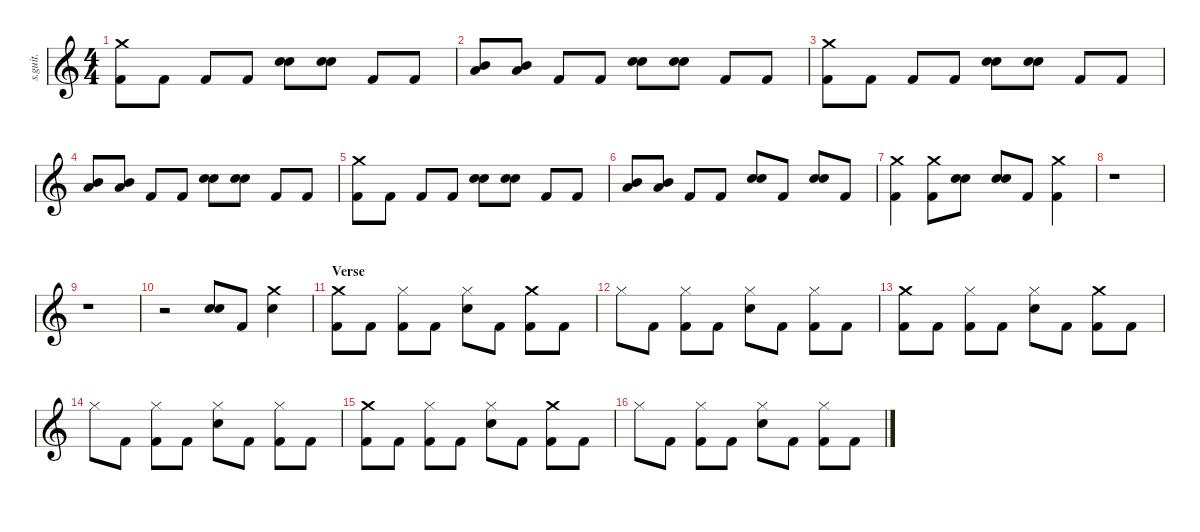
\defaultSystemsLayout 4
\hideDynamics
\bracketExtendMode nobrackets
\track ("Taylor Hawkins" "s.guit.") {instrument percussion}
\staff {score}
\articulation defaults
\ts (4 4)
\tempo (154 hide)
\clef g2
\ks c
("Crash medium (hit)" "Kick (hit) 2").8{lyrics (0 "") lyrics (1 "") lyrics (2 "") lyrics (3 "") lyrics (4 "") dy f} "Kick (hit) 2".8{lyrics (0 "") lyrics (1 "") lyrics (2 "") lyrics (3 "") lyrics (4 "")} "Kick (hit) 2".8{lyrics (0 "") lyrics (1 "") lyrics (2 "") lyrics (3 "") lyrics (4 "")} "Kick (hit) 2".8{lyrics (0 "") lyrics (1 "") lyrics (2 "") lyrics (3 "") lyrics (4 "")} ("Snare (hit) 2" "Electric Snare (hit)").8{lyrics (0 "") lyrics (1 "") lyrics (2 "") lyrics (3 "") lyrics (4 "")} ("Snare (hit) 2" "Electric Snare (hit)").8{lyrics (0 "") lyrics (1 "") lyrics (2 "") lyrics (3 "") lyrics (4 "")} "Kick (hit) 2".8{lyrics (0 "") lyrics (1 "") lyrics (2 "") lyrics (3 "") lyrics (4 "")} "Kick (hit) 2".8{lyrics (0 "") lyrics (1 "") lyrics (2 "") lyrics (3 "") lyrics (4 "")} |
("Low Floor Tom (hit)" "Mid Tom (hit)").8{lyrics (0 "") lyrics (1 "") lyrics (2 "") lyrics (3 "") lyrics (4 "")} ("Low Floor Tom (hit)" "Mid Tom (hit)").8{lyrics (0 "") lyrics (1 "") lyrics (2 "") lyrics (3 "") lyrics (4 "")} "Kick (hit) 2".8{lyrics (0 "") lyrics (1 "") lyrics (2 "") lyrics (3 "") lyrics (4 "")} "Kick (hit) 2".8{lyrics (0 "") lyrics (1 "") lyrics (2 "") lyrics (3 "") lyrics (4 "")} ("Snare (hit) 2" "Electric Snare (hit)").8{lyrics (0 "") lyrics (1 "") lyrics (2 "") lyrics (3 "") lyrics (4 "")} ("Snare (hit) 2" "Electric Snare (hit)").8{lyrics (0 "") lyrics (1 "") lyrics (2 "") lyrics (3 "") lyrics (4 "")} "Kick (hit) 2".8{lyrics (0 "") lyrics (1 "") lyrics (2 "") lyrics (3 "") lyrics (4 "")} "Kick (hit) 2".8{lyrics (0 "") lyrics (1 "") lyrics (2 "") lyrics (3 "") lyrics (4 "")} |
("Crash medium (hit)" "Kick (hit) 2").8{lyrics (0 "") lyrics (1 "") lyrics (2 "") lyrics (3 "") lyrics (4 "")} "Kick (hit) 2".8{lyrics (0 "") lyrics (1 "") lyrics (2 "") lyrics (3 "") lyrics (4 "")} "Kick (hit) 2".8{lyrics (0 "") lyrics (1 "") lyrics (2 "") lyrics (3 "") lyrics (4 "")} "Kick (hit) 2".8{lyrics (0 "") lyrics (1 "") lyrics (2 "") lyrics (3 "") lyrics (4 "")} ("Snare (hit) 2" "Electric Snare (hit)").8{lyrics (0 "") lyrics (1 "") lyrics (2 "") lyrics (3 "") lyrics (4 "")} ("Snare (hit) 2" "Electric Snare (hit)").8{lyrics (0 "") lyrics (1 "") lyrics (2 "") lyrics (3 "") lyrics (4 "")} "Kick (hit) 2".8{lyrics (0 "") lyrics (1 "") lyrics (2 "") lyrics (3 "") lyrics (4 "")} "Kick (hit) 2".8{lyrics (0 "") lyrics (1 "") lyrics (2 "") lyrics (3 "") lyrics (4 "")} |
("Low Floor Tom (hit)" "Mid Tom (hit)").8{lyrics (0 "") lyrics (1 "") lyrics (2 "") lyrics (3 "") lyrics (4 "")} ("Low Floor Tom (hit)" "Mid Tom (hit)").8{lyrics (0 "") lyrics (1 "") lyrics (2 "") lyrics (3 "") lyrics (4 "")} "Kick (hit) 2".8{lyrics (0 "") lyrics (1 "") lyrics (2 "") lyrics (3 "") lyrics (4 "")} "Kick (hit) 2".8{lyrics (0 "") lyrics (1 "") lyrics (2 "") lyrics (3 "") lyrics (4 "")} ("Snare (hit) 2" "Electric Snare (hit)").8{lyrics (0 "") lyrics (1 "") lyrics (2 "") lyrics (3 "") lyrics (4 "")} ("Snare (hit) 2" "Electric Snare (hit)").8{lyrics (0 "") lyrics (1 "") lyrics (2 "") lyrics (3 "") lyrics (4 "")} "Kick (hit) 2".8{lyrics (0 "") lyrics (1 "") lyrics (2 "") lyrics (3 "") lyrics (4 "")} "Kick (hit) 2".8{lyrics (0 "") lyrics (1 "") lyrics (2 "") lyrics (3 "") lyrics (4 "")} |
("Crash medium (hit)" "Kick (hit) 2").8{lyrics (0 "") lyrics (1 "") lyrics (2 "") lyrics (3 "") lyrics (4 "")} "Kick (hit) 2".8{lyrics (0 "") lyrics (1 "") lyrics (2 "") lyrics (3 "") lyrics (4 "")} "Kick (hit) 2".8{lyrics (0 "") lyrics (1 "") lyrics (2 "") lyrics (3 "") lyrics (4 "")} "Kick (hit) 2".8{lyrics (0 "") lyrics (1 "") lyrics (2 "") lyrics (3 "") lyrics (4 "")} ("Snare (hit) 2" "Electric Snare (hit)").8{lyrics (0 "") lyrics (1 "") lyrics (2 "") lyrics (3 "") lyrics (4 "")} ("Snare (hit) 2" "Electric Snare (hit)").8{lyrics (0 "") lyrics (1 "") lyrics (2 "") lyrics (3 "") lyrics (4 "")} "Kick (hit) 2".8{lyrics (0 "") lyrics (1 "") lyrics (2 "") lyrics (3 "") lyrics (4 "")} "Kick (hit) 2".8{lyrics (0 "") lyrics (1 "") lyrics (2 "") lyrics (3 "") lyrics (4 "")} |
("Mid Tom (hit)" "Low Tom (hit)").8{lyrics (0 "") lyrics (1 "") lyrics (2 "") lyrics (3 "") lyrics (4 "")} ("Mid Tom (hit)" "Low Tom (hit)").8{lyrics (0 "") lyrics (1 "") lyrics (2 "") lyrics (3 "") lyrics (4 "")} "Kick (hit) 2".8{lyrics (0 "") lyrics (1 "") lyrics (2 "") lyrics (3 "") lyrics (4 "")} "Kick (hit) 2".8{lyrics (0 "") lyrics (1 "") lyrics (2 "") lyrics (3 "") lyrics (4 "")} ("Snare (hit) 2" "Electric Snare (hit)").8{lyrics (0 "") lyrics (1 "") lyrics (2 "") lyrics (3 "") lyrics (4 "")} "Kick (hit) 2".8{lyrics (0 "") lyrics (1 "") lyrics (2 "") lyrics (3 "") lyrics (4 "")} ("Snare (hit) 2" "Electric Snare (hit)").8{lyrics (0 "") lyrics (1 "") lyrics (2 "") lyrics (3 "") lyrics (4 "")} "Kick (hit) 2".8{lyrics (0 "") lyrics (1 "") lyrics (2 "") lyrics (3 "") lyrics (4 "")} |
("Crash medium (hit)" "Kick (hit) 2").4{lyrics (0 "") lyrics (1 "") lyrics (2 "") lyrics (3 "") lyrics (4 "")} ("Crash medium (hit)" "Kick (hit) 2").8{lyrics (0 "") lyrics (1 "") lyrics (2 "") lyrics (3 "") lyrics (4 "")} ("Snare (hit) 2" "Electric Snare (hit)").8{lyrics (0 "") lyrics (1 "") lyrics (2 "") lyrics (3 "") lyrics (4 "")} ("Snare (hit) 2" "Electric Snare (hit)").8{lyrics (0 "") lyrics (1 "") lyrics (2 "") lyrics (3 "") lyrics (4 "")} "Kick (hit) 2".8{lyrics (0 "") lyrics (1 "") lyrics (2 "") lyrics (3 "") lyrics (4 "")} ("Crash medium (hit)" "Kick (hit) 2").4{lyrics (0 "") lyrics (1 "") lyrics (2 "") lyrics (3 "") lyrics (4 "")} |
r.1 |
r.1 |
r.2 ("Snare (hit) 2" "Electric Snare (hit)").8{lyrics (0 "") lyrics (1 "") lyrics (2 "") lyrics (3 "") lyrics (4 "")} "Kick (hit) 2".8{lyrics (0 "") lyrics (1 "") lyrics (2 "") lyrics (3 "") lyrics (4 "")} ("Crash medium (hit)" "Electric Snare (hit)").4{lyrics (0 "") lyrics (1 "") lyrics (2 "") lyrics (3 "") lyrics (4 "")} |
\section ("" "Verse")
("Crash medium (hit)" "Kick (hit) 2").8{lyrics (0 "") lyrics (1 "") lyrics (2 "") lyrics (3 "") lyrics (4 "")} "Kick (hit) 2".8{lyrics (0 "") lyrics (1 "") lyrics (2 "") lyrics (3 "") lyrics (4 "")} ("Hi-Hat (closed)" "Kick (hit) 2").8{lyrics (0 "") lyrics (1 "") lyrics (2 "") lyrics (3 "") lyrics (4 "")} "Kick (hit) 2".8{lyrics (0 "") lyrics (1 "") lyrics (2 "") lyrics (3 "") lyrics (4 "")} ("Hi-Hat (closed)" "Electric Snare (hit)").8{lyrics (0 "") lyrics (1 "") lyrics (2 "") lyrics (3 "") lyrics (4 "")} "Kick (hit) 2".8{lyrics (0 "") lyrics (1 "") lyrics (2 "") lyrics (3 "") lyrics (4 "")} ("Crash medium (hit)" "Kick (hit) 2").8{lyrics (0 "") lyrics (1 "") lyrics (2 "") lyrics (3 "") lyrics (4 "")} "Kick (hit) 2".8{lyrics (0 "") lyrics (1 "") lyrics (2 "") lyrics (3 "") lyrics (4 "")} |
"Hi-Hat (closed)".8{lyrics (0 "") lyrics (1 "") lyrics (2 "") lyrics (3 "") lyrics (4 "")} "Kick (hit) 2".8{lyrics (0 "") lyrics (1 "") lyrics (2 "") lyrics (3 "") lyrics (4 "")} ("Hi-Hat (closed)" "Kick (hit) 2").8{lyrics (0 "") lyrics (1 "") lyrics (2 "") lyrics (3 "") lyrics (4 "")} "Kick (hit) 2".8{lyrics (0 "") lyrics (1 "") lyrics (2 "") lyrics (3 "") lyrics (4 "")} ("Hi-Hat (closed)" "Electric Snare (hit)").8{lyrics (0 "") lyrics (1 "") lyrics (2 "") lyrics (3 "") lyrics (4 "")} "Kick (hit) 2".8{lyrics (0 "") lyrics (1 "") lyrics (2 "") lyrics (3 "") lyrics (4 "")} ("Hi-Hat (closed)" "Kick (hit) 2").8{lyrics (0 "") lyrics (1 "") lyrics (2 "") lyrics (3 "") lyrics (4 "")} "Kick (hit) 2".8{lyrics (0 "") lyrics (1 "") lyrics (2 "") lyrics (3 "") lyrics (4 "")} |
("Crash medium (hit)" "Kick (hit) 2").8{lyrics (0 "") lyrics (1 "") lyrics (2 "") lyrics (3 "") lyrics (4 "")} "Kick (hit) 2".8{lyrics (0 "") lyrics (1 "") lyrics (2 "") lyrics (3 "") lyrics (4 "")} ("Hi-Hat (closed)" "Kick (hit) 2").8{lyrics (0 "") lyrics (1 "") lyrics (2 "") lyrics (3 "") lyrics (4 "")} "Kick (hit) 2".8{lyrics (0 "") lyrics (1 "") lyrics (2 "") lyrics (3 "") lyrics (4 "")} ("Hi-Hat (closed)" "Electric Snare (hit)").8{lyrics (0 "") lyrics (1 "") lyrics (2 "") lyrics (3 "") lyrics (4 "")} "Kick (hit) 2".8{lyrics (0 "") lyrics (1 "") lyrics (2 "") lyrics (3 "") lyrics (4 "")} ("Crash medium (hit)" "Kick (hit) 2").8{lyrics (0 "") lyrics (1 "") lyrics (2 "") lyrics (3 "") lyrics (4 "")} "Kick (hit) 2".8{lyrics (0 "") lyrics (1 "") lyrics (2 "") lyrics (3 "") lyrics (4 "")} |
"Hi-Hat (closed)".8{lyrics (0 "") lyrics (1 "") lyrics (2 "") lyrics (3 "") lyrics (4 "")} "Kick (hit) 2".8{lyrics (0 "") lyrics (1 "") lyrics (2 "") lyrics (3 "") lyrics (4 "")} ("Hi-Hat (closed)" "Kick (hit) 2").8{lyrics (0 "") lyrics (1 "") lyrics (2 "") lyrics (3 "") lyrics (4 "")} "Kick (hit) 2".8{lyrics (0 "") lyrics (1 "") lyrics (2 "") lyrics (3 "") lyrics (4 "")} ("Hi-Hat (closed)" "Electric Snare (hit)").8{lyrics (0 "") lyrics (1 "") lyrics (2 "") lyrics (3 "") lyrics (4 "")} "Kick (hit) 2".8{lyrics (0 "") lyrics (1 "") lyrics (2 "") lyrics (3 "") lyrics (4 "")} ("Hi-Hat (closed)" "Kick (hit) 2").8{lyrics (0 "") lyrics (1 "") lyrics (2 "") lyrics (3 "") lyrics (4 "")} "Kick (hit) 2".8{lyrics (0 "") lyrics (1 "") lyrics (2 "") lyrics (3 "") lyrics (4 "")} |
("Crash medium (hit)" "Kick (hit) 2").8{lyrics (0 "") lyrics (1 "") lyrics (2 "") lyrics (3 "") lyrics (4 "")} "Kick (hit) 2".8{lyrics (0 "") lyrics (1 "") lyrics (2 "") lyrics (3 "") lyrics (4 "")} ("Hi-Hat (closed)" "Kick (hit) 2").8{lyrics (0 "") lyrics (1 "") lyrics (2 "") lyrics (3 "") lyrics (4 "")} "Kick (hit) 2".8{lyrics (0 "") lyrics (1 "") lyrics (2 "") lyrics (3 "") lyrics (4 "")} ("Hi-Hat (closed)" "Electric Snare (hit)").8{lyrics (0 "") lyrics (1 "") lyrics (2 "") lyrics (3 "") lyrics (4 "")} "Kick (hit) 2".8{lyrics (0 "") lyrics (1 "") lyrics (2 "") lyrics (3 "") lyrics (4 "")} ("Crash medium (hit)" "Kick (hit) 2").8{lyrics (0 "") lyrics (1 "") lyrics (2 "") lyrics (3 "") lyrics (4 "")} "Kick (hit) 2".8{lyrics (0 "") lyrics (1 "") lyrics (2 "") lyrics (3 "") lyrics (4 "")} |
"Hi-Hat (closed)".8{lyrics (0 "") lyrics (1 "") lyrics (2 "") lyrics (3 "") lyrics (4 "")} "Kick (hit) 2".8{lyrics (0 "") lyrics (1 "") lyrics (2 "") lyrics (3 "") lyrics (4 "")} ("Hi-Hat (closed)" "Kick (hit) 2").8{lyrics (0 "") lyrics (1 "") lyrics (2 "") lyrics (3 "") lyrics (4 "")} "Kick (hit) 2".8{lyrics (0 "") lyrics (1 "") lyrics (2 "") lyrics (3 "") lyrics (4 "")} ("Hi-Hat (closed)" "Electric Snare (hit)").8{lyrics (0 "") lyrics (1 "") lyrics (2 "") lyrics (3 "") lyrics (4 "")} "Kick (hit) 2".8{lyrics (0 "") lyrics (1 "") lyrics (2 "") lyrics (3 "") lyrics (4 "")} ("Hi-Hat (closed)" "Kick (hit) 2").8{lyrics (0 "") lyrics (1 "") lyrics (2 "") lyrics (3 "") lyrics (4 "")} "Kick (hit) 2".8{lyrics (0 "") lyrics (1 "") lyrics (2 "") lyrics (3 "") lyrics (4 "")}
